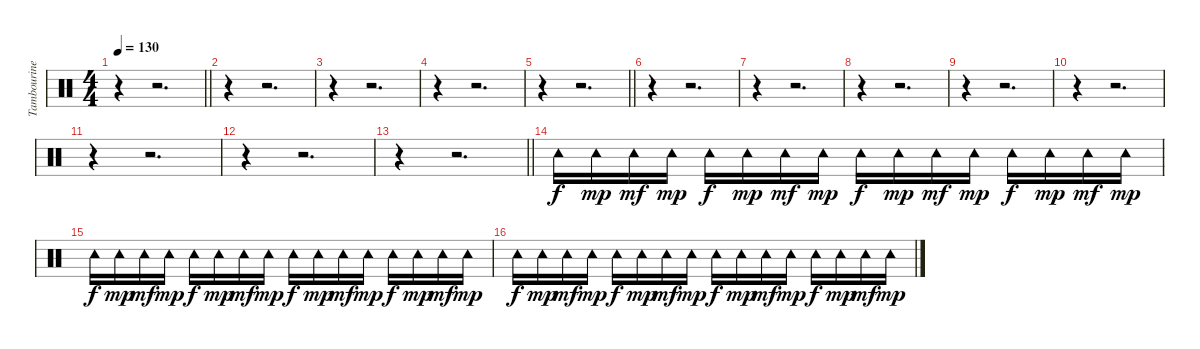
\track ("Tambourine" "Tambourine") {instrument percussion}
\staff {score}
\articulation defaults
\ts (4 4)
\tempo 130
\clef neutral
\barLineRight lightlight
\ks c
r.4{dy f} r.2{d} |
r.4 r.2{d} |
r.4 r.2{d} |
r.4 r.2{d} |
\barLineRight lightlight
r.4 r.2{d} |
r.4 r.2{d} |
r.4 r.2{d} |
r.4 r.2{d} |
r.4 r.2{d} |
r.4 r.2{d} |
r.4 r.2{d} |
r.4 r.2{d} |
\barLineRight lightlight
r.4 r.2{d} |
"Tambourine (hit)".16 "Tambourine (hit)".16{dy mp} "Tambourine (hit)".16{dy mf} "Tambourine (hit)".16{dy mp} "Tambourine (hit)".16{dy f} "Tambourine (hit)".16{dy mp} "Tambourine (hit)".16{dy mf} "Tambourine (hit)".16{dy mp} "Tambourine (hit)".16{dy f} "Tambourine (hit)".16{dy mp} "Tambourine (hit)".16{dy mf} "Tambourine (hit)".16{dy mp} "Tambourine (hit)".16{dy f} "Tambourine (hit)".16{dy mp} "Tambourine (hit)".16{dy mf} "Tambourine (hit)".16{dy mp} |
"Tambourine (hit)".16{dy f} "Tambourine (hit)".16{dy mp} "Tambourine (hit)".16{dy mf} "Tambourine (hit)".16{dy mp} "Tambourine (hit)".16{dy f} "Tambourine (hit)".16{dy mp} "Tambourine (hit)".16{dy mf} "Tambourine (hit)".16{dy mp} "Tambourine (hit)".16{dy f} "Tambourine (hit)".16{dy mp} "Tambourine (hit)".16{dy mf} "Tambourine (hit)".16{dy mp} "Tambourine (hit)".16{dy f} "Tambourine (hit)".16{dy mp} "Tambourine (hit)".16{dy mf} "Tambourine (hit)".16{dy mp} |
"Tambourine (hit)".16{dy f} "Tambourine (hit)".16{dy mp} "Tambourine (hit)".16{dy mf} "Tambourine (hit)".16{dy mp} "Tambourine (hit)".16{dy f} "Tambourine (hit)".16{dy mp} "Tambourine (hit)".16{dy mf} "Tambourine (hit)".16{dy mp} "Tambourine (hit)".16{dy f} "Tambourine (hit)".16{dy mp} "Tambourine (hit)".16{dy mf} "Tambourine (hit)".16{dy mp} "Tambourine (hit)".16{dy f} "Tambourine (hit)".16{dy mp} "Tambourine (hit)".16{dy mf} "Tambourine (hit)".16{dy mp}
